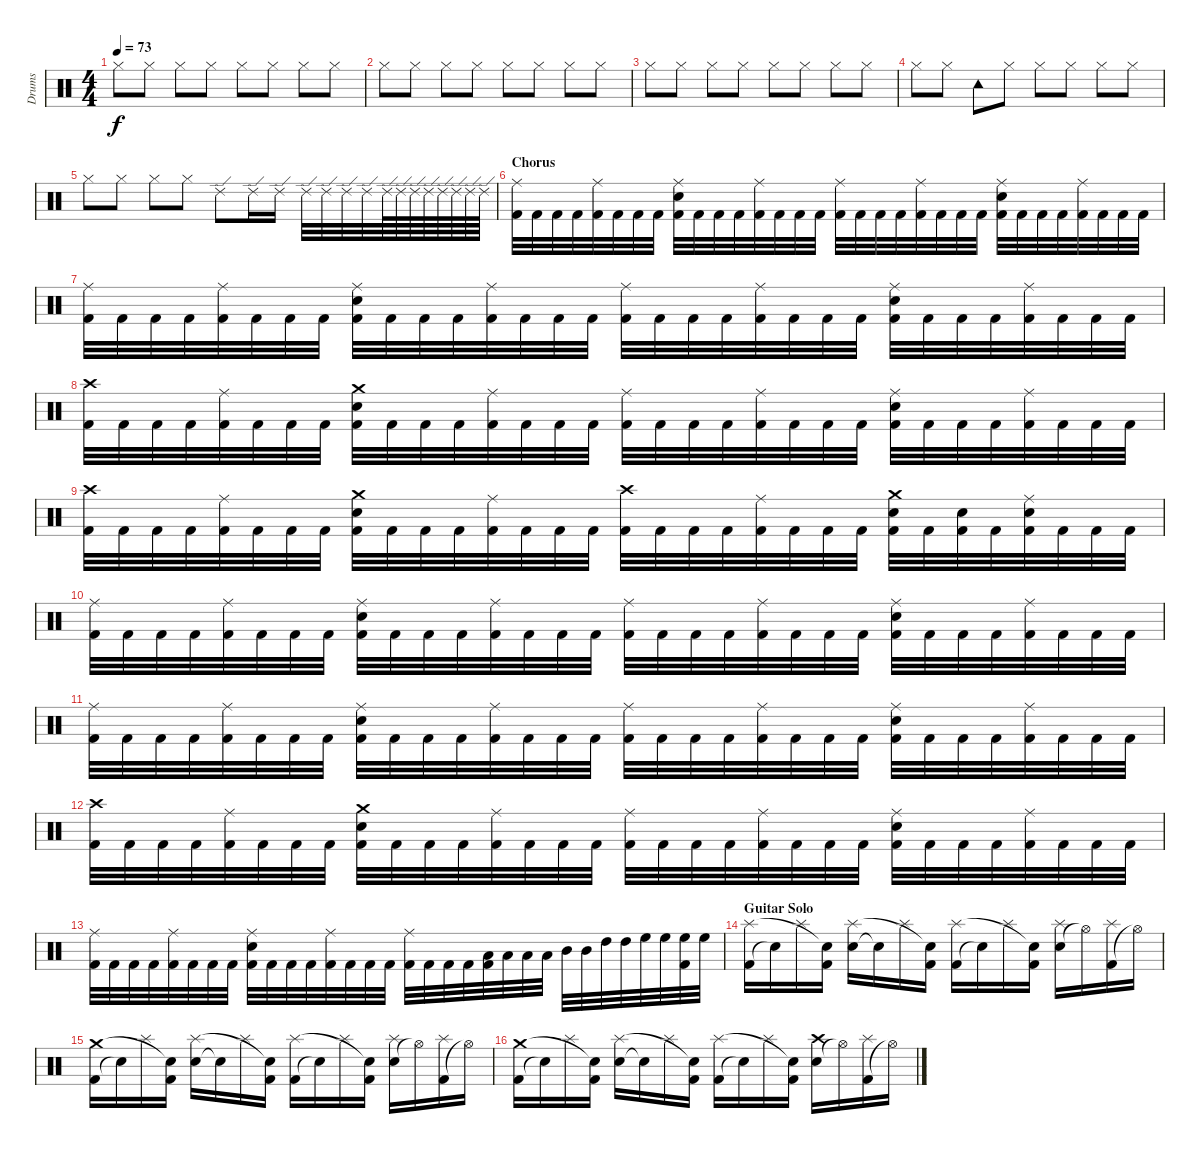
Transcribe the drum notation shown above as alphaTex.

\track ("Drums" "Drums") {instrument percussion}
\staff {score}
\articulation defaults
\ts (4 4)
\tempo 73
\clef neutral
\ks c "Hi-Hat (closed)".8{dy f} "Hi-Hat (closed)".8 "Hi-Hat (closed)".8 "Hi-Hat (closed)".8 "Hi-Hat (closed)".8 "Hi-Hat (closed)".8 "Hi-Hat (closed)".8 "Hi-Hat (closed)".8
|
"Hi-Hat (closed)".8 "Hi-Hat (closed)".8 "Hi-Hat (closed)".8 "Hi-Hat (closed)".8 "Hi-Hat (closed)".8 "Hi-Hat (closed)".8 "Hi-Hat (closed)".8 "Hi-Hat (closed)".8 |
"Hi-Hat (closed)".8 "Hi-Hat (closed)".8 "Hi-Hat (closed)".8 "Hi-Hat (closed)".8 "Hi-Hat (closed)".8 "Hi-Hat (closed)".8 "Hi-Hat (closed)".8 "Hi-Hat (closed)".8 |
"Hi-Hat (closed)".8 "Hi-Hat (closed)".8 "Tambourine (hit)".8 "Hi-Hat (closed)".8 "Hi-Hat (closed)".8 "Hi-Hat (closed)".8 "Hi-Hat (closed)".8 "Hi-Hat (closed)".8 |
"Hi-Hat (closed)".8 "Hi-Hat (closed)".8 "Hi-Hat (closed)".8 "Hi-Hat (closed)".8 "Ride (edge) 2".8 "Ride (edge) 2".16 "Ride (edge) 2".16 "Ride (edge) 2".32 "Ride (edge) 2".32 "Ride (edge) 2".32 "Ride (edge) 2".32 "Ride (edge) 2".64 "Ride (edge) 2".64 "Ride (edge) 2".64 "Ride (edge) 2".64 "Ride (edge) 2".64 "Ride (edge) 2".64 "Ride (edge) 2".64 "Ride (edge) 2".64 |
\section ("" "Chorus")
("Kick (hit) 2" "Ride (middle)").32 "Kick (hit) 2".32 "Kick (hit) 2".32 "Kick (hit) 2".32 ("Kick (hit) 2" "Ride (middle)").32 "Kick (hit) 2".32 "Kick (hit) 2".32 "Kick (hit) 2".32 ("Kick (hit) 2" "Snare (hit) 2" "Ride (middle)").32 "Kick (hit) 2".32 "Kick (hit) 2".32 "Kick (hit) 2".32 ("Kick (hit) 2" "Ride (middle)").32 "Kick (hit) 2".32 "Kick (hit) 2".32 "Kick (hit) 2".32 ("Kick (hit) 2" "Ride (middle)").32 "Kick (hit) 2".32 "Kick (hit) 2".32 "Kick (hit) 2".32 ("Kick (hit) 2" "Ride (middle)").32 "Kick (hit) 2".32 "Kick (hit) 2".32 "Kick (hit) 2".32 ("Kick (hit) 2" "Snare (hit) 2" "Ride (middle)").32 "Kick (hit) 2".32 "Kick (hit) 2".32 "Kick (hit) 2".32 ("Kick (hit) 2" "Ride (middle)").32 "Kick (hit) 2".32 "Kick (hit) 2".32 "Kick (hit) 2".32 |
("Kick (hit) 2" "Ride (middle)").32 "Kick (hit) 2".32 "Kick (hit) 2".32 "Kick (hit) 2".32 ("Kick (hit) 2" "Ride (middle)").32 "Kick (hit) 2".32 "Kick (hit) 2".32 "Kick (hit) 2".32 ("Kick (hit) 2" "Snare (hit) 2" "Ride (middle)").32 "Kick (hit) 2".32 "Kick (hit) 2".32 "Kick (hit) 2".32 ("Kick (hit) 2" "Ride (middle)").32 "Kick (hit) 2".32 "Kick (hit) 2".32 "Kick (hit) 2".32 ("Kick (hit) 2" "Ride (middle)").32 "Kick (hit) 2".32 "Kick (hit) 2".32 "Kick (hit) 2".32 ("Kick (hit) 2" "Ride (middle)").32 "Kick (hit) 2".32 "Kick (hit) 2".32 "Kick (hit) 2".32 ("Kick (hit) 2" "Snare (hit) 2" "Ride (middle)").32 "Kick (hit) 2".32 "Kick (hit) 2".32 "Kick (hit) 2".32 ("Kick (hit) 2" "Ride (middle)").32 "Kick (hit) 2".32 "Kick (hit) 2".32 "Kick (hit) 2".32 |
("Kick (hit) 2" "Crash high (hit)").32 "Kick (hit) 2".32 "Kick (hit) 2".32 "Kick (hit) 2".32 ("Kick (hit) 2" "Ride (middle)").32 "Kick (hit) 2".32 "Kick (hit) 2".32 "Kick (hit) 2".32 ("Kick (hit) 2" "Snare (hit) 2" "Crash medium (hit)").32 "Kick (hit) 2".32 "Kick (hit) 2".32 "Kick (hit) 2".32 ("Kick (hit) 2" "Ride (middle)").32 "Kick (hit) 2".32 "Kick (hit) 2".32 "Kick (hit) 2".32 ("Kick (hit) 2" "Ride (middle)").32 "Kick (hit) 2".32 "Kick (hit) 2".32 "Kick (hit) 2".32 ("Kick (hit) 2" "Ride (middle)").32 "Kick (hit) 2".32 "Kick (hit) 2".32 "Kick (hit) 2".32 ("Kick (hit) 2" "Snare (hit) 2" "Ride (middle)").32 "Kick (hit) 2".32 "Kick (hit) 2".32 "Kick (hit) 2".32 ("Kick (hit) 2" "Ride (middle)").32 "Kick (hit) 2".32 "Kick (hit) 2".32 "Kick (hit) 2".32 |
("Kick (hit) 2" "Crash high (hit)").32 "Kick (hit) 2".32 "Kick (hit) 2".32 "Kick (hit) 2".32 ("Kick (hit) 2" "Ride (middle)").32 "Kick (hit) 2".32 "Kick (hit) 2".32 "Kick (hit) 2".32 ("Kick (hit) 2" "Snare (hit) 2" "Crash medium (hit)").32 "Kick (hit) 2".32 "Kick (hit) 2".32 "Kick (hit) 2".32 ("Kick (hit) 2" "Ride (middle)").32 "Kick (hit) 2".32 "Kick (hit) 2".32 "Kick (hit) 2".32 ("Kick (hit) 2" "Crash high (hit)").32 "Kick (hit) 2".32 "Kick (hit) 2".32 "Kick (hit) 2".32 ("Kick (hit) 2" "Ride (middle)").32 "Kick (hit) 2".32 "Kick (hit) 2".32 "Kick (hit) 2".32 ("Kick (hit) 2" "Snare (hit) 2" "Crash medium (hit)").32 "Kick (hit) 2".32 ("Kick (hit) 2" "Snare (hit) 2").32 "Kick (hit) 2".32 ("Kick (hit) 2" "Snare (hit) 2" "Ride (middle)").32 "Kick (hit) 2".32 "Kick (hit) 2".32 "Kick (hit) 2".32 |
("Kick (hit) 2" "Ride (middle)").32 "Kick (hit) 2".32 "Kick (hit) 2".32 "Kick (hit) 2".32 ("Kick (hit) 2" "Ride (middle)").32 "Kick (hit) 2".32 "Kick (hit) 2".32 "Kick (hit) 2".32 ("Kick (hit) 2" "Snare (hit) 2" "Ride (middle)").32 "Kick (hit) 2".32 "Kick (hit) 2".32 "Kick (hit) 2".32 ("Kick (hit) 2" "Ride (middle)").32 "Kick (hit) 2".32 "Kick (hit) 2".32 "Kick (hit) 2".32 ("Kick (hit) 2" "Ride (middle)").32 "Kick (hit) 2".32 "Kick (hit) 2".32 "Kick (hit) 2".32 ("Kick (hit) 2" "Ride (middle)").32 "Kick (hit) 2".32 "Kick (hit) 2".32 "Kick (hit) 2".32 ("Kick (hit) 2" "Snare (hit) 2" "Ride (middle)").32 "Kick (hit) 2".32 "Kick (hit) 2".32 "Kick (hit) 2".32 ("Kick (hit) 2" "Ride (middle)").32 "Kick (hit) 2".32 "Kick (hit) 2".32 "Kick (hit) 2".32 |
("Kick (hit) 2" "Ride (middle)").32 "Kick (hit) 2".32 "Kick (hit) 2".32 "Kick (hit) 2".32 ("Kick (hit) 2" "Ride (middle)").32 "Kick (hit) 2".32 "Kick (hit) 2".32 "Kick (hit) 2".32 ("Kick (hit) 2" "Snare (hit) 2" "Ride (middle)").32 "Kick (hit) 2".32 "Kick (hit) 2".32 "Kick (hit) 2".32 ("Kick (hit) 2" "Ride (middle)").32 "Kick (hit) 2".32 "Kick (hit) 2".32 "Kick (hit) 2".32 ("Kick (hit) 2" "Ride (middle)").32 "Kick (hit) 2".32 "Kick (hit) 2".32 "Kick (hit) 2".32 ("Kick (hit) 2" "Ride (middle)").32 "Kick (hit) 2".32 "Kick (hit) 2".32 "Kick (hit) 2".32 ("Kick (hit) 2" "Snare (hit) 2" "Ride (middle)").32 "Kick (hit) 2".32 "Kick (hit) 2".32 "Kick (hit) 2".32 ("Kick (hit) 2" "Ride (middle)").32 "Kick (hit) 2".32 "Kick (hit) 2".32 "Kick (hit) 2".32 |
("Kick (hit) 2" "Crash high (hit)").32 "Kick (hit) 2".32 "Kick (hit) 2".32 "Kick (hit) 2".32 ("Kick (hit) 2" "Ride (middle)").32 "Kick (hit) 2".32 "Kick (hit) 2".32 "Kick (hit) 2".32 ("Kick (hit) 2" "Snare (hit) 2" "Crash medium (hit)").32 "Kick (hit) 2".32 "Kick (hit) 2".32 "Kick (hit) 2".32 ("Kick (hit) 2" "Ride (middle)").32 "Kick (hit) 2".32 "Kick (hit) 2".32 "Kick (hit) 2".32 ("Kick (hit) 2" "Ride (middle)").32 "Kick (hit) 2".32 "Kick (hit) 2".32 "Kick (hit) 2".32 ("Kick (hit) 2" "Ride (middle)").32 "Kick (hit) 2".32 "Kick (hit) 2".32 "Kick (hit) 2".32 ("Kick (hit) 2" "Snare (hit) 2" "Ride (middle)").32 "Kick (hit) 2".32 "Kick (hit) 2".32 "Kick (hit) 2".32 ("Kick (hit) 2" "Ride (middle)").32 "Kick (hit) 2".32 "Kick (hit) 2".32 "Kick (hit) 2".32 |
("Kick (hit) 2" "Ride (middle)").32 "Kick (hit) 2".32 "Kick (hit) 2".32 "Kick (hit) 2".32 ("Kick (hit) 2" "Ride (middle)").32 "Kick (hit) 2".32 "Kick (hit) 2".32 "Kick (hit) 2".32 ("Kick (hit) 2" "Snare (hit) 2" "Ride (middle)").32 "Kick (hit) 2".32 "Kick (hit) 2".32 "Kick (hit) 2".32 ("Kick (hit) 2" "Ride (middle)").32 "Kick (hit) 2".32 "Kick (hit) 2".32 "Kick (hit) 2".32 ("Kick (hit) 2" "Ride (middle)").32 "Kick (hit) 2".32 "Kick (hit) 2".32 "Kick (hit) 2".32 ("Kick (hit) 2" "Low Tom (hit)").32 "Low Tom (hit)".32 "Low Tom (hit)".32 "Low Tom (hit)".32 "Mid Tom (hit)".32 "Mid Tom (hit)".32 "High Tom (hit)".32 "High Tom (hit)".32 "High Floor Tom (hit)".32 "High Floor Tom (hit)".32 ("Kick (hit) 2" "High Floor Tom (hit)").32 "High Floor Tom (hit)".32 |
\section ("" "Guitar Solo")
("Kick (hit) 2" "Splash (hit)").16 "Snare (hit)"{t}.16 "Splash (hit)".16 ("Kick (hit) 2" "Snare (hit)"{t}).16 ("Snare (hit) 2" "Splash (hit)").16 "Snare (hit)"{t}.16 "Splash (hit)".16 ("Kick (hit) 2" "Snare (hit)"{t}).16 ("Kick (hit) 2" "Splash (hit)").16 "Snare (hit)"{t}.16 "Splash (hit)".16 ("Kick (hit) 2" "Snare (hit)"{t}).16 ("Snare (hit) 2" "Splash (hit)").16 "Hi-Hat (open)"{t}.16 ("Kick (hit) 2" "Splash (hit)").16 "Hi-Hat (open)"{t}.16 |
("Kick (hit) 2" "Crash medium (hit)").16 "Snare (hit)"{t}.16 "Splash (hit)".16 ("Kick (hit) 2" "Snare (hit)"{t}).16 ("Snare (hit) 2" "Splash (hit)").16 "Snare (hit)"{t}.16 "Splash (hit)".16 ("Kick (hit) 2" "Snare (hit)"{t}).16 ("Kick (hit) 2" "Splash (hit)").16 "Snare (hit)"{t}.16 "Splash (hit)".16 ("Kick (hit) 2" "Snare (hit)"{t}).16 ("Snare (hit) 2" "Splash (hit)").16 "Hi-Hat (open)"{t}.16 ("Kick (hit) 2" "Splash (hit)").16 "Hi-Hat (open)"{t}.16 |
("Kick (hit) 2" "Crash medium (hit)").16 "Snare (hit)"{t}.16 "Splash (hit)".16 ("Kick (hit) 2" "Snare (hit)"{t}).16 ("Snare (hit) 2" "Splash (hit)").16 "Snare (hit)"{t}.16 "Splash (hit)".16 ("Kick (hit) 2" "Snare (hit)"{t}).16 ("Kick (hit) 2" "Splash (hit)").16 "Snare (hit)"{t}.16 "Splash (hit)".16 ("Kick (hit) 2" "Snare (hit)"{t}).16 ("Snare (hit) 2" "Crash high (hit)").16 "Hi-Hat (open)"{t}.16 ("Kick (hit) 2" "Splash (hit)").16 "Hi-Hat (open)"{t}.16
